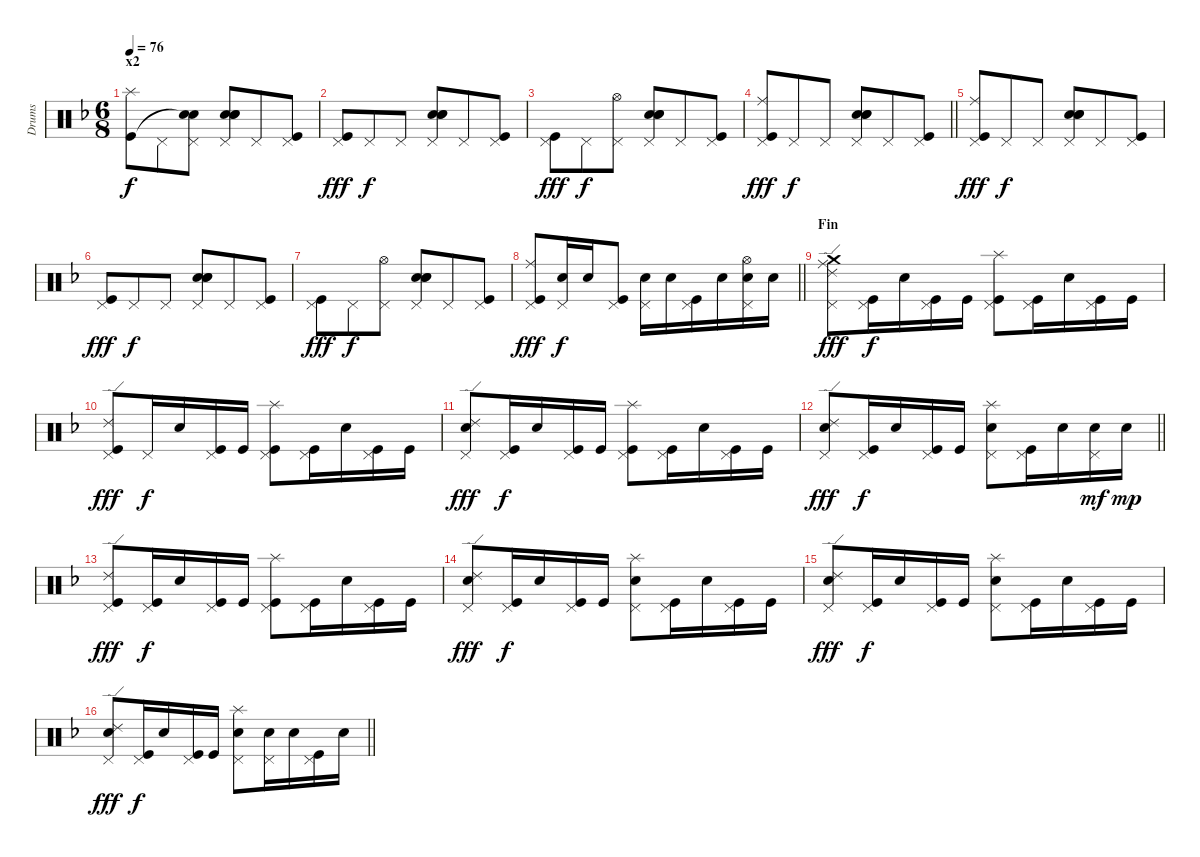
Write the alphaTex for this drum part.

\track ("Drums" "Drums") {instrument percussion}
\staff {score}
\articulation defaults
\ts (6 8)
\section ("" "x2")
\tempo 76
\clef neutral
\ks f
("Splash (hit)" "Kick (hit)").8{dy f} "Pedal Hi-Hat (hit)".8 ("Pedal Hi-Hat (hit)" "Snare (hit)"{t} "Snare (hit)"{t}).8 ("Pedal Hi-Hat (hit)" "Metronome (bell)" "Electric Snare (hit)" "Snare (hit) 2").8 "Pedal Hi-Hat (hit)".8 ("Pedal Hi-Hat (hit)" "Kick (hit)").8 |
("Pedal Hi-Hat (hit)" "Kick (hit)").8{dy fff} "Pedal Hi-Hat (hit)".8{dy f} "Pedal Hi-Hat (hit)".8 ("Pedal Hi-Hat (hit)" "Metronome (bell)" "Electric Snare (hit)" "Snare (hit) 2").8 "Pedal Hi-Hat (hit)".8 ("Pedal Hi-Hat (hit)" "Kick (hit)").8 |
("Pedal Hi-Hat (hit)" "Kick (hit)").8{dy fff} "Pedal Hi-Hat (hit)".8{dy f} ("Pedal Hi-Hat (hit)" "Hi-Hat (open)").8 ("Pedal Hi-Hat (hit)" "Metronome (bell)" "Electric Snare (hit)" "Snare (hit) 2").8 "Pedal Hi-Hat (hit)".8 ("Pedal Hi-Hat (hit)" "Kick (hit)").8 |
\barLineRight lightlight
("Pedal Hi-Hat (hit)" "Ride (middle)" "Kick (hit)").8{dy fff} "Pedal Hi-Hat (hit)".8{dy f} "Pedal Hi-Hat (hit)".8 ("Pedal Hi-Hat (hit)" "Metronome (bell)" "Electric Snare (hit)" "Snare (hit) 2").8 "Pedal Hi-Hat (hit)".8 ("Pedal Hi-Hat (hit)" "Kick (hit)").8 |
("Pedal Hi-Hat (hit)" "Ride (middle)" "Kick (hit)").8{dy fff} "Pedal Hi-Hat (hit)".8{dy f} "Pedal Hi-Hat (hit)".8 ("Pedal Hi-Hat (hit)" "Metronome (bell)" "Electric Snare (hit)" "Snare (hit) 2").8 "Pedal Hi-Hat (hit)".8 ("Pedal Hi-Hat (hit)" "Kick (hit)").8 |
("Pedal Hi-Hat (hit)" "Kick (hit)").8{dy fff} "Pedal Hi-Hat (hit)".8{dy f} "Pedal Hi-Hat (hit)".8 ("Pedal Hi-Hat (hit)" "Metronome (bell)" "Electric Snare (hit)" "Snare (hit) 2").8 "Pedal Hi-Hat (hit)".8 ("Pedal Hi-Hat (hit)" "Kick (hit)").8 |
("Pedal Hi-Hat (hit)" "Kick (hit)").8{dy fff} "Pedal Hi-Hat (hit)".8{dy f} ("Pedal Hi-Hat (hit)" "Hi-Hat (open)").8 ("Pedal Hi-Hat (hit)" "Metronome (bell)" "Electric Snare (hit)" "Snare (hit) 2").8 "Pedal Hi-Hat (hit)".8 ("Pedal Hi-Hat (hit)" "Kick (hit)").8 |
\barLineRight lightlight
("Pedal Hi-Hat (hit)" "Ride (middle)" "Kick (hit)").8{dy fff} ("Pedal Hi-Hat (hit)" "Electric Snare (hit)").16{dy f} "Electric Snare (hit)".16 ("Pedal Hi-Hat (hit)" "Kick (hit)").8 ("Pedal Hi-Hat (hit)" "Electric Snare (hit)").16 "Electric Snare (hit)".16 ("Pedal Hi-Hat (hit)" "Kick (hit)").16 "Electric Snare (hit)".16 ("Pedal Hi-Hat (hit)" "Hi-Hat (open)" "Electric Snare (hit)").16 "Electric Snare (hit)".16 |
\section ("" "Fin")
("Pedal Hi-Hat (hit)" "Ride (middle)" "Ride (edge) 2" "Crash medium (hit)").8{dy fff} ("Pedal Hi-Hat (hit)" "Kick (hit)").16{dy f} "Electric Snare (hit)".16 ("Pedal Hi-Hat (hit)" "Kick (hit)").16 "Kick (hit)".16 ("Pedal Hi-Hat (hit)" "Splash (hit)" "Kick (hit)").8 ("Pedal Hi-Hat (hit)" "Kick (hit)").16 "Electric Snare (hit)".16 ("Pedal Hi-Hat (hit)" "Kick (hit)").16 "Kick (hit)".16 |
("Pedal Hi-Hat (hit)" "Ride (edge) 2" "Kick (hit)").8{dy fff} "Pedal Hi-Hat (hit)".16{dy f} "Electric Snare (hit)".16 ("Pedal Hi-Hat (hit)" "Kick (hit)").16 "Kick (hit)".16 ("Pedal Hi-Hat (hit)" "Splash (hit)" "Kick (hit)").8 ("Pedal Hi-Hat (hit)" "Kick (hit)").16 "Electric Snare (hit)".16 ("Pedal Hi-Hat (hit)" "Kick (hit)").16 "Kick (hit)".16 |
("Pedal Hi-Hat (hit)" "Ride (edge) 2" "Electric Snare (hit)").8{dy fff} ("Pedal Hi-Hat (hit)" "Kick (hit)").16{dy f} "Electric Snare (hit)".16 ("Pedal Hi-Hat (hit)" "Kick (hit)").16 "Kick (hit)".16 ("Pedal Hi-Hat (hit)" "Splash (hit)" "Kick (hit)").8 ("Pedal Hi-Hat (hit)" "Kick (hit)").16 "Electric Snare (hit)".16 ("Pedal Hi-Hat (hit)" "Kick (hit)").16 "Kick (hit)".16 |
\barLineRight lightlight
("Pedal Hi-Hat (hit)" "Ride (edge) 2" "Electric Snare (hit)").8{dy fff} ("Pedal Hi-Hat (hit)" "Kick (hit)").16{dy f} "Electric Snare (hit)".16 ("Pedal Hi-Hat (hit)" "Kick (hit)").16 "Kick (hit)".16 ("Pedal Hi-Hat (hit)" "Splash (hit)" "Electric Snare (hit)").8 ("Pedal Hi-Hat (hit)" "Kick (hit)").16 "Electric Snare (hit)".16 ("Pedal Hi-Hat (hit)" "Electric Snare (hit)").16{dy mf} "Electric Snare (hit)".16{dy mp} |
("Pedal Hi-Hat (hit)" "Ride (edge) 2" "Kick (hit)").8{dy fff} ("Pedal Hi-Hat (hit)" "Kick (hit)").16{dy f} "Electric Snare (hit)".16 ("Pedal Hi-Hat (hit)" "Kick (hit)").16 "Kick (hit)".16 ("Pedal Hi-Hat (hit)" "Splash (hit)" "Kick (hit)").8 ("Pedal Hi-Hat (hit)" "Kick (hit)").16 "Electric Snare (hit)".16 ("Pedal Hi-Hat (hit)" "Kick (hit)").16 "Kick (hit)".16 |
("Pedal Hi-Hat (hit)" "Ride (edge) 2" "Electric Snare (hit)").8{dy fff} ("Pedal Hi-Hat (hit)" "Kick (hit)").16{dy f} "Electric Snare (hit)".16 ("Pedal Hi-Hat (hit)" "Kick (hit)").16 "Kick (hit)".16 ("Pedal Hi-Hat (hit)" "Splash (hit)" "Electric Snare (hit)").8 ("Pedal Hi-Hat (hit)" "Kick (hit)").16 "Electric Snare (hit)".16 ("Pedal Hi-Hat (hit)" "Kick (hit)").16 "Kick (hit)".16 |
("Pedal Hi-Hat (hit)" "Ride (edge) 2" "Electric Snare (hit)").8{dy fff} ("Pedal Hi-Hat (hit)" "Kick (hit)").16{dy f} "Electric Snare (hit)".16 ("Pedal Hi-Hat (hit)" "Kick (hit)").16 "Kick (hit)".16 ("Pedal Hi-Hat (hit)" "Splash (hit)" "Electric Snare (hit)").8 ("Pedal Hi-Hat (hit)" "Kick (hit)").16 "Electric Snare (hit)".16 ("Pedal Hi-Hat (hit)" "Kick (hit)").16 "Kick (hit)".16 |
\barLineRight lightlight
("Pedal Hi-Hat (hit)" "Ride (edge) 2" "Electric Snare (hit)").8{dy fff} ("Pedal Hi-Hat (hit)" "Kick (hit)").16{dy f} "Electric Snare (hit)".16 ("Pedal Hi-Hat (hit)" "Kick (hit)").16 "Kick (hit)".16 ("Pedal Hi-Hat (hit)" "Splash (hit)" "Electric Snare (hit)").8 ("Pedal Hi-Hat (hit)" "Electric Snare (hit)").16 "Electric Snare (hit)".16 ("Pedal Hi-Hat (hit)" "Kick (hit)").16 "Electric Snare (hit)".16
